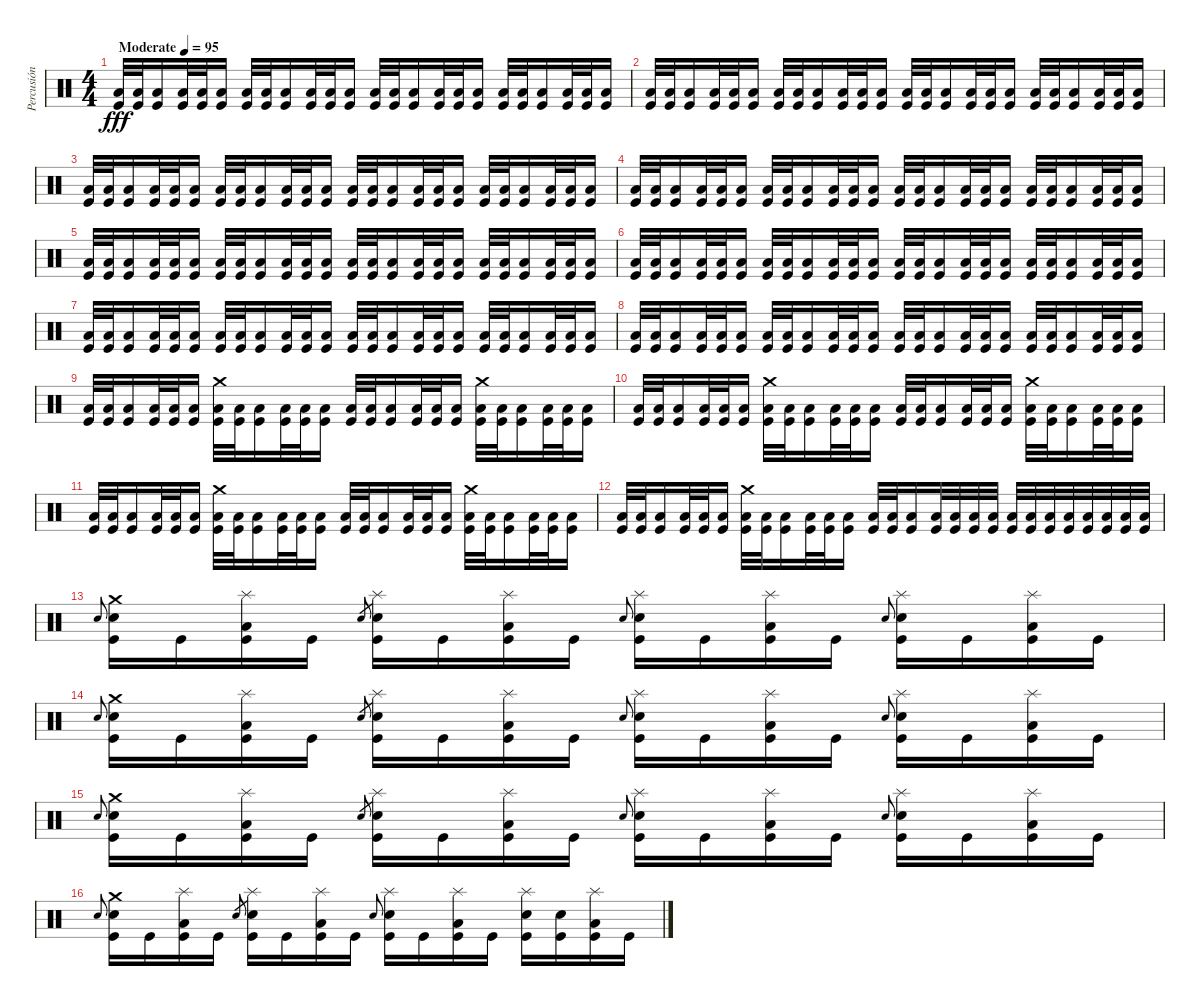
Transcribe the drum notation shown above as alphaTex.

\track ("Percusión" "Percusión") {instrument percussion}
\staff {score}
\articulation defaults
\ts (4 4)
\tempo (95 "Moderate")
\clef neutral
\ks c
("Low Floor Tom (hit)" "Kick (hit)").32{dy fff} ("Low Floor Tom (hit)" "Kick (hit)").32 ("Low Floor Tom (hit)" "Kick (hit)").16 ("Low Floor Tom (hit)" "Kick (hit)").32 ("Low Floor Tom (hit)" "Kick (hit)").32 ("Low Floor Tom (hit)" "Kick (hit)").16 ("Low Floor Tom (hit)" "Kick (hit)").32 ("Low Floor Tom (hit)" "Kick (hit)").32 ("Low Floor Tom (hit)" "Kick (hit)").16 ("Low Floor Tom (hit)" "Kick (hit)").32 ("Low Floor Tom (hit)" "Kick (hit)").32 ("Low Floor Tom (hit)" "Kick (hit)").16 ("Low Floor Tom (hit)" "Kick (hit)").32 ("Low Floor Tom (hit)" "Kick (hit)").32 ("Low Floor Tom (hit)" "Kick (hit)").16 ("Low Floor Tom (hit)" "Kick (hit)").32 ("Low Floor Tom (hit)" "Kick (hit)").32 ("Low Floor Tom (hit)" "Kick (hit)").16 ("Low Floor Tom (hit)" "Kick (hit)").32 ("Low Floor Tom (hit)" "Kick (hit)").32 ("Low Floor Tom (hit)" "Kick (hit)").16 ("Low Floor Tom (hit)" "Kick (hit)").32 ("Low Floor Tom (hit)" "Kick (hit)").32 ("Low Floor Tom (hit)" "Kick (hit)").16 |
("Low Floor Tom (hit)" "Kick (hit)").32 ("Low Floor Tom (hit)" "Kick (hit)").32 ("Low Floor Tom (hit)" "Kick (hit)").16 ("Low Floor Tom (hit)" "Kick (hit)").32 ("Low Floor Tom (hit)" "Kick (hit)").32 ("Low Floor Tom (hit)" "Kick (hit)").16 ("Low Floor Tom (hit)" "Kick (hit)").32 ("Low Floor Tom (hit)" "Kick (hit)").32 ("Low Floor Tom (hit)" "Kick (hit)").16 ("Low Floor Tom (hit)" "Kick (hit)").32 ("Low Floor Tom (hit)" "Kick (hit)").32 ("Low Floor Tom (hit)" "Kick (hit)").16 ("Low Floor Tom (hit)" "Kick (hit)").32 ("Low Floor Tom (hit)" "Kick (hit)").32 ("Low Floor Tom (hit)" "Kick (hit)").16 ("Low Floor Tom (hit)" "Kick (hit)").32 ("Low Floor Tom (hit)" "Kick (hit)").32 ("Low Floor Tom (hit)" "Kick (hit)").16 ("Low Floor Tom (hit)" "Kick (hit)").32 ("Low Floor Tom (hit)" "Kick (hit)").32 ("Low Floor Tom (hit)" "Kick (hit)").16 ("Low Floor Tom (hit)" "Kick (hit)").32 ("Low Floor Tom (hit)" "Kick (hit)").32 ("Low Floor Tom (hit)" "Kick (hit)").16 |
("Low Floor Tom (hit)" "Kick (hit)").32 ("Low Floor Tom (hit)" "Kick (hit)").32 ("Low Floor Tom (hit)" "Kick (hit)").16 ("Low Floor Tom (hit)" "Kick (hit)").32 ("Low Floor Tom (hit)" "Kick (hit)").32 ("Low Floor Tom (hit)" "Kick (hit)").16 ("Low Floor Tom (hit)" "Kick (hit)").32 ("Low Floor Tom (hit)" "Kick (hit)").32 ("Low Floor Tom (hit)" "Kick (hit)").16 ("Low Floor Tom (hit)" "Kick (hit)").32 ("Low Floor Tom (hit)" "Kick (hit)").32 ("Low Floor Tom (hit)" "Kick (hit)").16 ("Low Floor Tom (hit)" "Kick (hit)").32 ("Low Floor Tom (hit)" "Kick (hit)").32 ("Low Floor Tom (hit)" "Kick (hit)").16 ("Low Floor Tom (hit)" "Kick (hit)").32 ("Low Floor Tom (hit)" "Kick (hit)").32 ("Low Floor Tom (hit)" "Kick (hit)").16 ("Low Floor Tom (hit)" "Kick (hit)").32 ("Low Floor Tom (hit)" "Kick (hit)").32 ("Low Floor Tom (hit)" "Kick (hit)").16 ("Low Floor Tom (hit)" "Kick (hit)").32 ("Low Floor Tom (hit)" "Kick (hit)").32 ("Low Floor Tom (hit)" "Kick (hit)").16 |
("Low Floor Tom (hit)" "Kick (hit)").32 ("Low Floor Tom (hit)" "Kick (hit)").32 ("Low Floor Tom (hit)" "Kick (hit)").16 ("Low Floor Tom (hit)" "Kick (hit)").32 ("Low Floor Tom (hit)" "Kick (hit)").32 ("Low Floor Tom (hit)" "Kick (hit)").16 ("Low Floor Tom (hit)" "Kick (hit)").32 ("Low Floor Tom (hit)" "Kick (hit)").32 ("Low Floor Tom (hit)" "Kick (hit)").16 ("Low Floor Tom (hit)" "Kick (hit)").32 ("Low Floor Tom (hit)" "Kick (hit)").32 ("Low Floor Tom (hit)" "Kick (hit)").16 ("Low Floor Tom (hit)" "Kick (hit)").32 ("Low Floor Tom (hit)" "Kick (hit)").32 ("Low Floor Tom (hit)" "Kick (hit)").16 ("Low Floor Tom (hit)" "Kick (hit)").32 ("Low Floor Tom (hit)" "Kick (hit)").32 ("Low Floor Tom (hit)" "Kick (hit)").16 ("Low Floor Tom (hit)" "Kick (hit)").32 ("Low Floor Tom (hit)" "Kick (hit)").32 ("Low Floor Tom (hit)" "Kick (hit)").16 ("Low Floor Tom (hit)" "Kick (hit)").32 ("Low Floor Tom (hit)" "Kick (hit)").32 ("Low Floor Tom (hit)" "Kick (hit)").16 |
("Low Floor Tom (hit)" "Kick (hit)").32 ("Low Floor Tom (hit)" "Kick (hit)").32 ("Low Floor Tom (hit)" "Kick (hit)").16 ("Low Floor Tom (hit)" "Kick (hit)").32 ("Low Floor Tom (hit)" "Kick (hit)").32 ("Low Floor Tom (hit)" "Kick (hit)").16 ("Low Floor Tom (hit)" "Kick (hit)").32 ("Low Floor Tom (hit)" "Kick (hit)").32 ("Low Floor Tom (hit)" "Kick (hit)").16 ("Low Floor Tom (hit)" "Kick (hit)").32 ("Low Floor Tom (hit)" "Kick (hit)").32 ("Low Floor Tom (hit)" "Kick (hit)").16 ("Low Floor Tom (hit)" "Kick (hit)").32 ("Low Floor Tom (hit)" "Kick (hit)").32 ("Low Floor Tom (hit)" "Kick (hit)").16 ("Low Floor Tom (hit)" "Kick (hit)").32 ("Low Floor Tom (hit)" "Kick (hit)").32 ("Low Floor Tom (hit)" "Kick (hit)").16 ("Low Floor Tom (hit)" "Kick (hit)").32 ("Low Floor Tom (hit)" "Kick (hit)").32 ("Low Floor Tom (hit)" "Kick (hit)").16 ("Low Floor Tom (hit)" "Kick (hit)").32 ("Low Floor Tom (hit)" "Kick (hit)").32 ("Low Floor Tom (hit)" "Kick (hit)").16 |
("Low Floor Tom (hit)" "Kick (hit)").32 ("Low Floor Tom (hit)" "Kick (hit)").32 ("Low Floor Tom (hit)" "Kick (hit)").16 ("Low Floor Tom (hit)" "Kick (hit)").32 ("Low Floor Tom (hit)" "Kick (hit)").32 ("Low Floor Tom (hit)" "Kick (hit)").16 ("Low Floor Tom (hit)" "Kick (hit)").32 ("Low Floor Tom (hit)" "Kick (hit)").32 ("Low Floor Tom (hit)" "Kick (hit)").16 ("Low Floor Tom (hit)" "Kick (hit)").32 ("Low Floor Tom (hit)" "Kick (hit)").32 ("Low Floor Tom (hit)" "Kick (hit)").16 ("Low Floor Tom (hit)" "Kick (hit)").32 ("Low Floor Tom (hit)" "Kick (hit)").32 ("Low Floor Tom (hit)" "Kick (hit)").16 ("Low Floor Tom (hit)" "Kick (hit)").32 ("Low Floor Tom (hit)" "Kick (hit)").32 ("Low Floor Tom (hit)" "Kick (hit)").16 ("Low Floor Tom (hit)" "Kick (hit)").32 ("Low Floor Tom (hit)" "Kick (hit)").32 ("Low Floor Tom (hit)" "Kick (hit)").16 ("Low Floor Tom (hit)" "Kick (hit)").32 ("Low Floor Tom (hit)" "Kick (hit)").32 ("Low Floor Tom (hit)" "Kick (hit)").16 |
("Low Floor Tom (hit)" "Kick (hit)").32 ("Low Floor Tom (hit)" "Kick (hit)").32 ("Low Floor Tom (hit)" "Kick (hit)").16 ("Low Floor Tom (hit)" "Kick (hit)").32 ("Low Floor Tom (hit)" "Kick (hit)").32 ("Low Floor Tom (hit)" "Kick (hit)").16 ("Low Floor Tom (hit)" "Kick (hit)").32 ("Low Floor Tom (hit)" "Kick (hit)").32 ("Low Floor Tom (hit)" "Kick (hit)").16 ("Low Floor Tom (hit)" "Kick (hit)").32 ("Low Floor Tom (hit)" "Kick (hit)").32 ("Low Floor Tom (hit)" "Kick (hit)").16 ("Low Floor Tom (hit)" "Kick (hit)").32 ("Low Floor Tom (hit)" "Kick (hit)").32 ("Low Floor Tom (hit)" "Kick (hit)").16 ("Low Floor Tom (hit)" "Kick (hit)").32 ("Low Floor Tom (hit)" "Kick (hit)").32 ("Low Floor Tom (hit)" "Kick (hit)").16 ("Low Floor Tom (hit)" "Kick (hit)").32 ("Low Floor Tom (hit)" "Kick (hit)").32 ("Low Floor Tom (hit)" "Kick (hit)").16 ("Low Floor Tom (hit)" "Kick (hit)").32 ("Low Floor Tom (hit)" "Kick (hit)").32 ("Low Floor Tom (hit)" "Kick (hit)").16 |
("Low Floor Tom (hit)" "Kick (hit)").32 ("Low Floor Tom (hit)" "Kick (hit)").32 ("Low Floor Tom (hit)" "Kick (hit)").16 ("Low Floor Tom (hit)" "Kick (hit)").32 ("Low Floor Tom (hit)" "Kick (hit)").32 ("Low Floor Tom (hit)" "Kick (hit)").16 ("Low Floor Tom (hit)" "Kick (hit)").32 ("Low Floor Tom (hit)" "Kick (hit)").32 ("Low Floor Tom (hit)" "Kick (hit)").16 ("Low Floor Tom (hit)" "Kick (hit)").32 ("Low Floor Tom (hit)" "Kick (hit)").32 ("Low Floor Tom (hit)" "Kick (hit)").16 ("Low Floor Tom (hit)" "Kick (hit)").32 ("Low Floor Tom (hit)" "Kick (hit)").32 ("Low Floor Tom (hit)" "Kick (hit)").16 ("Low Floor Tom (hit)" "Kick (hit)").32 ("Low Floor Tom (hit)" "Kick (hit)").32 ("Low Floor Tom (hit)" "Kick (hit)").16 ("Low Floor Tom (hit)" "Kick (hit)").32 ("Low Floor Tom (hit)" "Kick (hit)").32 ("Low Floor Tom (hit)" "Kick (hit)").16 ("Low Floor Tom (hit)" "Kick (hit)").32 ("Low Floor Tom (hit)" "Kick (hit)").32 ("Low Floor Tom (hit)" "Kick (hit)").16 |
("Low Floor Tom (hit)" "Kick (hit)").32 ("Low Floor Tom (hit)" "Kick (hit)").32 ("Low Floor Tom (hit)" "Kick (hit)").16 ("Low Floor Tom (hit)" "Kick (hit)").32 ("Low Floor Tom (hit)" "Kick (hit)").32 ("Low Floor Tom (hit)" "Kick (hit)").16 ("Crash medium (hit)" "Low Floor Tom (hit)" "Kick (hit)").32 ("Low Floor Tom (hit)" "Kick (hit)").32 ("Low Floor Tom (hit)" "Kick (hit)").16 ("Low Floor Tom (hit)" "Kick (hit)").32 ("Low Floor Tom (hit)" "Kick (hit)").32 ("Low Floor Tom (hit)" "Kick (hit)").16 ("Low Floor Tom (hit)" "Kick (hit)").32 ("Low Floor Tom (hit)" "Kick (hit)").32 ("Low Floor Tom (hit)" "Kick (hit)").16 ("Low Floor Tom (hit)" "Kick (hit)").32 ("Low Floor Tom (hit)" "Kick (hit)").32 ("Low Floor Tom (hit)" "Kick (hit)").16 ("Crash medium (hit)" "Low Floor Tom (hit)" "Kick (hit)").32 ("Low Floor Tom (hit)" "Kick (hit)").32 ("Low Floor Tom (hit)" "Kick (hit)").16 ("Low Floor Tom (hit)" "Kick (hit)").32 ("Low Floor Tom (hit)" "Kick (hit)").32 ("Low Floor Tom (hit)" "Kick (hit)").16 |
("Low Floor Tom (hit)" "Kick (hit)").32 ("Low Floor Tom (hit)" "Kick (hit)").32 ("Low Floor Tom (hit)" "Kick (hit)").16 ("Low Floor Tom (hit)" "Kick (hit)").32 ("Low Floor Tom (hit)" "Kick (hit)").32 ("Low Floor Tom (hit)" "Kick (hit)").16 ("Crash medium (hit)" "Low Floor Tom (hit)" "Kick (hit)").32 ("Low Floor Tom (hit)" "Kick (hit)").32 ("Low Floor Tom (hit)" "Kick (hit)").16 ("Low Floor Tom (hit)" "Kick (hit)").32 ("Low Floor Tom (hit)" "Kick (hit)").32 ("Low Floor Tom (hit)" "Kick (hit)").16 ("Low Floor Tom (hit)" "Kick (hit)").32 ("Low Floor Tom (hit)" "Kick (hit)").32 ("Low Floor Tom (hit)" "Kick (hit)").16 ("Low Floor Tom (hit)" "Kick (hit)").32 ("Low Floor Tom (hit)" "Kick (hit)").32 ("Low Floor Tom (hit)" "Kick (hit)").16 ("Crash medium (hit)" "Low Floor Tom (hit)" "Kick (hit)").32 ("Low Floor Tom (hit)" "Kick (hit)").32 ("Low Floor Tom (hit)" "Kick (hit)").16 ("Low Floor Tom (hit)" "Kick (hit)").32 ("Low Floor Tom (hit)" "Kick (hit)").32 ("Low Floor Tom (hit)" "Kick (hit)").16 |
("Low Floor Tom (hit)" "Kick (hit)").32 ("Low Floor Tom (hit)" "Kick (hit)").32 ("Low Floor Tom (hit)" "Kick (hit)").16 ("Low Floor Tom (hit)" "Kick (hit)").32 ("Low Floor Tom (hit)" "Kick (hit)").32 ("Low Floor Tom (hit)" "Kick (hit)").16 ("Crash medium (hit)" "Low Floor Tom (hit)" "Kick (hit)").32 ("Low Floor Tom (hit)" "Kick (hit)").32 ("Low Floor Tom (hit)" "Kick (hit)").16 ("Low Floor Tom (hit)" "Kick (hit)").32 ("Low Floor Tom (hit)" "Kick (hit)").32 ("Low Floor Tom (hit)" "Kick (hit)").16 ("Low Floor Tom (hit)" "Kick (hit)").32 ("Low Floor Tom (hit)" "Kick (hit)").32 ("Low Floor Tom (hit)" "Kick (hit)").16 ("Low Floor Tom (hit)" "Kick (hit)").32 ("Low Floor Tom (hit)" "Kick (hit)").32 ("Low Floor Tom (hit)" "Kick (hit)").16 ("Crash medium (hit)" "Low Floor Tom (hit)" "Kick (hit)").32 ("Low Floor Tom (hit)" "Kick (hit)").32 ("Low Floor Tom (hit)" "Kick (hit)").16 ("Low Floor Tom (hit)" "Kick (hit)").32 ("Low Floor Tom (hit)" "Kick (hit)").32 ("Low Floor Tom (hit)" "Kick (hit)").16 |
("Low Floor Tom (hit)" "Kick (hit)").32 ("Low Floor Tom (hit)" "Kick (hit)").32 ("Low Floor Tom (hit)" "Kick (hit)").16 ("Low Floor Tom (hit)" "Kick (hit)").32 ("Low Floor Tom (hit)" "Kick (hit)").32 ("Low Floor Tom (hit)" "Kick (hit)").16 ("Crash medium (hit)" "Low Floor Tom (hit)" "Kick (hit)").32 ("Low Floor Tom (hit)" "Kick (hit)").32 ("Low Floor Tom (hit)" "Kick (hit)").16 ("Low Floor Tom (hit)" "Kick (hit)").32 ("Low Floor Tom (hit)" "Kick (hit)").32 ("Low Floor Tom (hit)" "Kick (hit)").16 ("Low Floor Tom (hit)" "Kick (hit)").32 ("Low Floor Tom (hit)" "Kick (hit)").32 ("Low Floor Tom (hit)" "Kick (hit)").16 ("Low Floor Tom (hit)" "Kick (hit)").32 ("Low Floor Tom (hit)" "Kick (hit)").32 ("Low Floor Tom (hit)" "Kick (hit)").32 ("Low Floor Tom (hit)" "Kick (hit)").32 ("Low Floor Tom (hit)" "Kick (hit)").32 ("Low Floor Tom (hit)" "Kick (hit)").32 ("Low Floor Tom (hit)" "Kick (hit)").32 ("Low Floor Tom (hit)" "Kick (hit)").32 ("Low Floor Tom (hit)" "Kick (hit)").32 ("Low Floor Tom (hit)" "Kick (hit)").32 ("Low Floor Tom (hit)" "Kick (hit)").32 ("Low Floor Tom (hit)" "Kick (hit)").32 |
"Snare (hit) 2".8{gr onbeat} ("Crash medium (hit)" "Snare (hit) 2" "Kick (hit)").16 "Kick (hit)".16 ("Splash (hit)" "Low Floor Tom (hit)" "Kick (hit)").16 "Kick (hit)".16 "Snare (hit) 2".8{gr} ("Splash (hit)" "Snare (hit) 2" "Kick (hit)").16 "Kick (hit)".16 ("Splash (hit)" "Low Floor Tom (hit)" "Kick (hit)").16 "Kick (hit)".16 "Snare (hit) 2".8{gr onbeat} ("Splash (hit)" "Snare (hit) 2" "Kick (hit)").16 "Kick (hit)".16 ("Splash (hit)" "Low Floor Tom (hit)" "Kick (hit)").16 "Kick (hit)".16 "Snare (hit) 2".8{gr onbeat} ("Splash (hit)" "Snare (hit) 2" "Kick (hit)").16 "Kick (hit)".16 ("Splash (hit)" "Low Floor Tom (hit)" "Kick (hit)").16 "Kick (hit)".16 |
"Snare (hit) 2".8{gr onbeat} ("Crash medium (hit)" "Snare (hit) 2" "Kick (hit)").16 "Kick (hit)".16 ("Splash (hit)" "Low Floor Tom (hit)" "Kick (hit)").16 "Kick (hit)".16 "Snare (hit) 2".8{gr} ("Splash (hit)" "Snare (hit) 2" "Kick (hit)").16 "Kick (hit)".16 ("Splash (hit)" "Low Floor Tom (hit)" "Kick (hit)").16 "Kick (hit)".16 "Snare (hit) 2".8{gr onbeat} ("Splash (hit)" "Snare (hit) 2" "Kick (hit)").16 "Kick (hit)".16 ("Splash (hit)" "Low Floor Tom (hit)" "Kick (hit)").16 "Kick (hit)".16 "Snare (hit) 2".8{gr onbeat} ("Splash (hit)" "Snare (hit) 2" "Kick (hit)").16 "Kick (hit)".16 ("Splash (hit)" "Low Floor Tom (hit)" "Kick (hit)").16 "Kick (hit)".16 |
"Snare (hit) 2".8{gr onbeat} ("Crash medium (hit)" "Snare (hit) 2" "Kick (hit)").16 "Kick (hit)".16 ("Splash (hit)" "Low Floor Tom (hit)" "Kick (hit)").16 "Kick (hit)".16 "Snare (hit) 2".8{gr} ("Splash (hit)" "Snare (hit) 2" "Kick (hit)").16 "Kick (hit)".16 ("Splash (hit)" "Low Floor Tom (hit)" "Kick (hit)").16 "Kick (hit)".16 "Snare (hit) 2".8{gr onbeat} ("Splash (hit)" "Snare (hit) 2" "Kick (hit)").16 "Kick (hit)".16 ("Splash (hit)" "Low Floor Tom (hit)" "Kick (hit)").16 "Kick (hit)".16 "Snare (hit) 2".8{gr onbeat} ("Splash (hit)" "Snare (hit) 2" "Kick (hit)").16 "Kick (hit)".16 ("Splash (hit)" "Low Floor Tom (hit)" "Kick (hit)").16 "Kick (hit)".16 |
"Snare (hit) 2".8{gr onbeat} ("Crash medium (hit)" "Snare (hit) 2" "Kick (hit)").16 "Kick (hit)".16 ("Splash (hit)" "Low Floor Tom (hit)" "Kick (hit)").16 "Kick (hit)".16 "Snare (hit) 2".8{gr} ("Splash (hit)" "Snare (hit) 2" "Kick (hit)").16 "Kick (hit)".16 ("Splash (hit)" "Low Floor Tom (hit)" "Kick (hit)").16 "Kick (hit)".16 "Snare (hit) 2".8{gr onbeat} ("Splash (hit)" "Snare (hit) 2" "Kick (hit)").16 "Kick (hit)".16 ("Splash (hit)" "Low Floor Tom (hit)" "Kick (hit)").16 "Kick (hit)".16 ("Splash (hit)" "Snare (hit) 2" "Kick (hit)").16 ("Snare (hit) 2" "Kick (hit)").16 ("Splash (hit)" "Low Floor Tom (hit)" "Kick (hit)").16 "Kick (hit)".16
